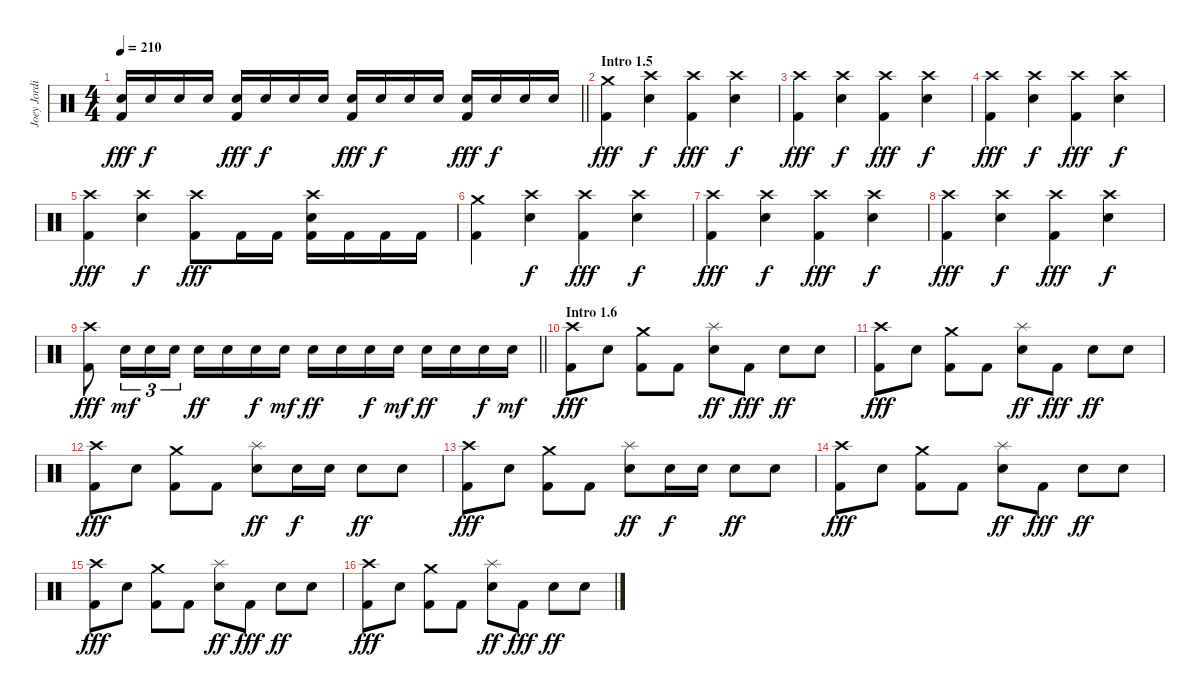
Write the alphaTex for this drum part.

\track ("Joey Jordison" "Joey Jordi") {instrument percussion}
\staff {score}
\articulation defaults
\ts (4 4)
\tempo 210
\clef neutral
\barLineRight lightlight
\ks c
("Electric Snare (hit)" "Kick (hit) 2").16{dy fff} "Electric Snare (hit)".16{dy f} "Electric Snare (hit)".16 "Electric Snare (hit)".16 ("Electric Snare (hit)" "Kick (hit) 2").16{dy fff} "Electric Snare (hit)".16{dy f} "Electric Snare (hit)".16 "Electric Snare (hit)".16 ("Electric Snare (hit)" "Kick (hit) 2").16{dy fff} "Electric Snare (hit)".16{dy f} "Electric Snare (hit)".16 "Electric Snare (hit)".16 ("Electric Snare (hit)" "Kick (hit) 2").16{dy fff} "Electric Snare (hit)".16{dy f} "Electric Snare (hit)".16 "Electric Snare (hit)".16 |
\section ("" "Intro 1.5")
("Crash medium (hit)" "Kick (hit) 2").4{dy fff} ("Crash high (hit)" "Electric Snare (hit)").4{dy f} ("Crash high (hit)" "Kick (hit) 2").4{dy fff} ("Crash high (hit)" "Electric Snare (hit)").4{dy f} |
("Crash high (hit)" "Kick (hit) 2").4{dy fff} ("Crash high (hit)" "Electric Snare (hit)").4{dy f} ("Crash high (hit)" "Kick (hit) 2").4{dy fff} ("Crash high (hit)" "Electric Snare (hit)").4{dy f} |
("Crash high (hit)" "Kick (hit) 2").4{dy fff} ("Crash high (hit)" "Electric Snare (hit)").4{dy f} ("Crash high (hit)" "Kick (hit) 2").4{dy fff} ("Crash high (hit)" "Electric Snare (hit)").4{dy f} |
("Crash high (hit)" "Kick (hit) 2").4{dy fff} ("Crash high (hit)" "Electric Snare (hit)").4{dy f} ("Crash high (hit)" "Kick (hit) 2").8{dy fff} "Kick (hit) 2".16 "Kick (hit) 2".16 ("Crash high (hit)" "Electric Snare (hit)" "Kick (hit) 2").16 "Kick (hit) 2".16 "Kick (hit) 2".16 "Kick (hit) 2".16 |
("Crash medium (hit)" "Kick (hit) 2").4 ("Crash high (hit)" "Electric Snare (hit)").4{dy f} ("Crash high (hit)" "Kick (hit) 2").4{dy fff} ("Crash high (hit)" "Electric Snare (hit)").4{dy f} |
("Crash high (hit)" "Kick (hit) 2").4{dy fff} ("Crash high (hit)" "Electric Snare (hit)").4{dy f} ("Crash high (hit)" "Kick (hit) 2").4{dy fff} ("Crash high (hit)" "Electric Snare (hit)").4{dy f} |
("Crash high (hit)" "Kick (hit) 2").4{dy fff} ("Crash high (hit)" "Electric Snare (hit)").4{dy f} ("Crash high (hit)" "Kick (hit) 2").4{dy fff} ("Crash high (hit)" "Electric Snare (hit)").4{dy f} |
\barLineRight lightlight
("Crash high (hit)" "Kick (hit) 2").8{dy fff} "Electric Snare (hit)".16{tu (3 2) dy mf} "Electric Snare (hit)".16{tu (3 2)} "Electric Snare (hit)".16{tu (3 2)} "Electric Snare (hit)".16{dy ff} "Electric Snare (hit)".16 "Electric Snare (hit)".16{dy f} "Electric Snare (hit)".16{dy mf} "Electric Snare (hit)".16{dy ff} "Electric Snare (hit)".16 "Electric Snare (hit)".16{dy f} "Electric Snare (hit)".16{dy mf} "Electric Snare (hit)".16{dy ff} "Electric Snare (hit)".16 "Electric Snare (hit)".16{dy f} "Electric Snare (hit)".16{dy mf} |
\section ("" "Intro 1.6")
("Crash high (hit)" "Kick (hit) 2").8{dy fff} "Electric Snare (hit)".8 ("Crash medium (hit)" "Kick (hit) 2").8 "Kick (hit) 2".8 ("Splash (hit)" "Electric Snare (hit)").8{dy ff} "Kick (hit) 2".8{dy fff} "Electric Snare (hit)".8{dy ff} "Electric Snare (hit)".8 |
("Crash high (hit)" "Kick (hit) 2").8{dy fff} "Electric Snare (hit)".8 ("Crash medium (hit)" "Kick (hit) 2").8 "Kick (hit) 2".8 ("Splash (hit)" "Electric Snare (hit)").8{dy ff} "Kick (hit) 2".8{dy fff} "Electric Snare (hit)".8{dy ff} "Electric Snare (hit)".8 |
("Crash high (hit)" "Kick (hit) 2").8{dy fff} "Electric Snare (hit)".8 ("Crash medium (hit)" "Kick (hit) 2").8 "Kick (hit) 2".8 ("Splash (hit)" "Electric Snare (hit)").8{dy ff} "Electric Snare (hit)".16{dy f} "Electric Snare (hit)".16 "Electric Snare (hit)".8{dy ff} "Electric Snare (hit)".8 |
("Crash high (hit)" "Kick (hit) 2").8{dy fff} "Electric Snare (hit)".8 ("Crash medium (hit)" "Kick (hit) 2").8 "Kick (hit) 2".8 ("Splash (hit)" "Electric Snare (hit)").8{dy ff} "Electric Snare (hit)".16{dy f} "Electric Snare (hit)".16 "Electric Snare (hit)".8{dy ff} "Electric Snare (hit)".8 |
("Crash high (hit)" "Kick (hit) 2").8{dy fff} "Electric Snare (hit)".8 ("Crash medium (hit)" "Kick (hit) 2").8 "Kick (hit) 2".8 ("Splash (hit)" "Electric Snare (hit)").8{dy ff} "Kick (hit) 2".8{dy fff} "Electric Snare (hit)".8{dy ff} "Electric Snare (hit)".8 |
("Crash high (hit)" "Kick (hit) 2").8{dy fff} "Electric Snare (hit)".8 ("Crash medium (hit)" "Kick (hit) 2").8 "Kick (hit) 2".8 ("Splash (hit)" "Electric Snare (hit)").8{dy ff} "Kick (hit) 2".8{dy fff} "Electric Snare (hit)".8{dy ff} "Electric Snare (hit)".8 |
("Crash high (hit)" "Kick (hit) 2").8{dy fff} "Electric Snare (hit)".8 ("Crash medium (hit)" "Kick (hit) 2").8 "Kick (hit) 2".8 ("Splash (hit)" "Electric Snare (hit)").8{dy ff} "Kick (hit) 2".8{dy fff} "Electric Snare (hit)".8{dy ff} "Electric Snare (hit)".8
